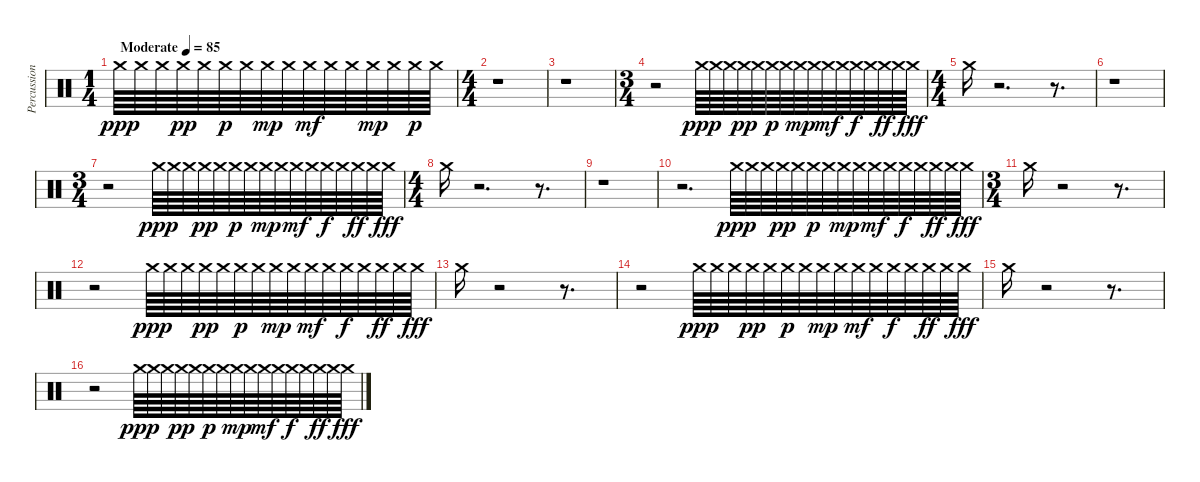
\track ("Percussion" "Percussion") {instrument percussion}
\staff {score}
\articulation defaults
\ts (1 4)
\tempo (85 "Moderate")
\clef neutral
\ks c "Crash medium (hit)".64{dy ppp} "Crash medium (hit)".64 "Crash medium (hit)".64 "Crash medium (hit)".64{dy pp} "Crash medium (hit)".64 "Crash medium (hit)".64{dy p} "Crash medium (hit)".64 "Crash medium (hit)".64{dy mp} "Crash medium (hit)".64 "Crash medium (hit)".64{dy mf} "Crash medium (hit)".64 "Crash medium (hit)".64 "Crash medium (hit)".64{dy mp} "Crash medium (hit)".64 "Crash medium (hit)".64{dy p} "Crash medium (hit)".64
|
\ts (4 4)
r.1 |
r.1 |
\ts (3 4)
r.2 "Crash medium (hit)".64{dy ppp} "Crash medium (hit)".64 "Crash medium (hit)".64 "Crash medium (hit)".64{dy pp} "Crash medium (hit)".64 "Crash medium (hit)".64{dy p} "Crash medium (hit)".64 "Crash medium (hit)".64{dy mp} "Crash medium (hit)".64 "Crash medium (hit)".64{dy mf} "Crash medium (hit)".64 "Crash medium (hit)".64{dy f} "Crash medium (hit)".64 "Crash medium (hit)".64{dy ff} "Crash medium (hit)".64 "Crash medium (hit)".64{dy fff} |
\ts (4 4)
"Crash medium (hit)".16 r.2{d} r.8{d} |
r.1 |
\ts (3 4)
r.2 "Crash medium (hit)".64{dy ppp} "Crash medium (hit)".64 "Crash medium (hit)".64 "Crash medium (hit)".64{dy pp} "Crash medium (hit)".64 "Crash medium (hit)".64{dy p} "Crash medium (hit)".64 "Crash medium (hit)".64{dy mp} "Crash medium (hit)".64 "Crash medium (hit)".64{dy mf} "Crash medium (hit)".64 "Crash medium (hit)".64{dy f} "Crash medium (hit)".64 "Crash medium (hit)".64{dy ff} "Crash medium (hit)".64 "Crash medium (hit)".64{dy fff} |
\ts (4 4)
"Crash medium (hit)".16 r.2{d} r.8{d} |
r.1 |
r.2{d} "Crash medium (hit)".64{dy ppp} "Crash medium (hit)".64 "Crash medium (hit)".64 "Crash medium (hit)".64{dy pp} "Crash medium (hit)".64 "Crash medium (hit)".64{dy p} "Crash medium (hit)".64 "Crash medium (hit)".64{dy mp} "Crash medium (hit)".64 "Crash medium (hit)".64{dy mf} "Crash medium (hit)".64 "Crash medium (hit)".64{dy f} "Crash medium (hit)".64 "Crash medium (hit)".64{dy ff} "Crash medium (hit)".64 "Crash medium (hit)".64{dy fff} |
\ts (3 4)
"Crash medium (hit)".16 r.2 r.8{d} |
r.2 "Crash medium (hit)".64{dy ppp} "Crash medium (hit)".64 "Crash medium (hit)".64 "Crash medium (hit)".64{dy pp} "Crash medium (hit)".64 "Crash medium (hit)".64{dy p} "Crash medium (hit)".64 "Crash medium (hit)".64{dy mp} "Crash medium (hit)".64 "Crash medium (hit)".64{dy mf} "Crash medium (hit)".64 "Crash medium (hit)".64{dy f} "Crash medium (hit)".64 "Crash medium (hit)".64{dy ff} "Crash medium (hit)".64 "Crash medium (hit)".64{dy fff} |
"Crash medium (hit)".16 r.2 r.8{d} |
r.2 "Crash medium (hit)".64{dy ppp} "Crash medium (hit)".64 "Crash medium (hit)".64 "Crash medium (hit)".64{dy pp} "Crash medium (hit)".64 "Crash medium (hit)".64{dy p} "Crash medium (hit)".64 "Crash medium (hit)".64{dy mp} "Crash medium (hit)".64 "Crash medium (hit)".64{dy mf} "Crash medium (hit)".64 "Crash medium (hit)".64{dy f} "Crash medium (hit)".64 "Crash medium (hit)".64{dy ff} "Crash medium (hit)".64 "Crash medium (hit)".64{dy fff} |
"Crash medium (hit)".16 r.2 r.8{d} |
r.2 "Crash medium (hit)".64{dy ppp} "Crash medium (hit)".64 "Crash medium (hit)".64 "Crash medium (hit)".64{dy pp} "Crash medium (hit)".64 "Crash medium (hit)".64{dy p} "Crash medium (hit)".64 "Crash medium (hit)".64{dy mp} "Crash medium (hit)".64 "Crash medium (hit)".64{dy mf} "Crash medium (hit)".64 "Crash medium (hit)".64{dy f} "Crash medium (hit)".64 "Crash medium (hit)".64{dy ff} "Crash medium (hit)".64 "Crash medium (hit)".64{dy fff}
